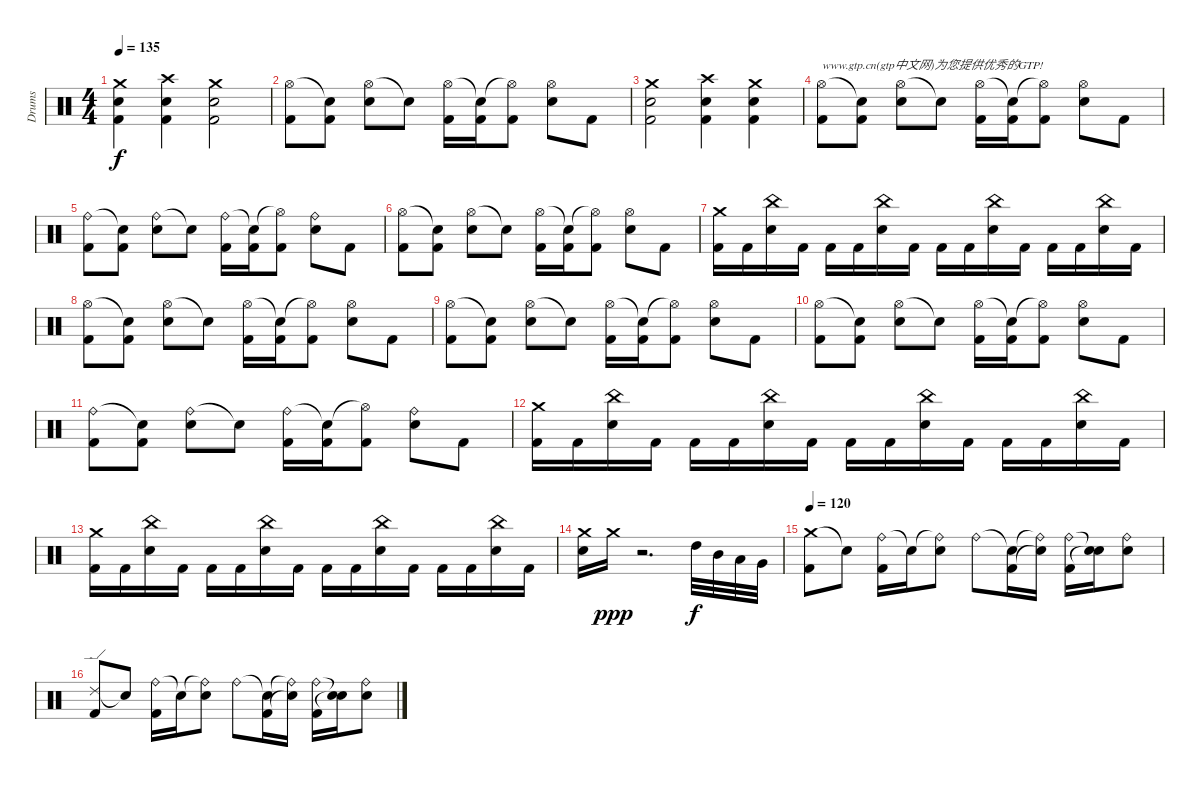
\track ("Drums" "Drums") {instrument percussion}
\staff {score}
\articulation defaults
\ts (4 4)
\tempo 135
\clef neutral
\ks c
("Crash medium (hit)" "Electric Snare (hit)" "Kick (hit) 2").4{dy f} ("Crash high (hit)" "Electric Snare (hit)" "Kick (hit) 2").4 ("Crash medium (hit)" "Electric Snare (hit)" "Kick (hit) 2").2 |
("Hi-Hat (open)" "Kick (hit) 2").8 ("Snare (hit)"{t} "Kick (hit) 2").8 ("Hi-Hat (open)" "Electric Snare (hit)").8 "Snare (hit)"{t}.8 ("Hi-Hat (open)" "Kick (hit) 2").16 ("Snare (hit)"{t} "Kick (hit) 2").16 ("Hi-Hat (open)"{t} "Kick (hit) 2").8 ("Hi-Hat (open)" "Electric Snare (hit)").8 "Kick (hit) 2".8 |
("Crash medium (hit)" "Snare (hit) 2" "Kick (hit) 2").2 ("Crash high (hit)" "Electric Snare (hit)" "Kick (hit) 2").4 ("Crash medium (hit)" "Electric Snare (hit)" "Kick (hit) 2").4 |
("Hi-Hat (open)" "Kick (hit) 2").8{txt "www.gtp.cn(gtp中文网)为您提供优秀的GTP!"} ("Snare (hit)"{t} "Kick (hit) 2").8 ("Hi-Hat (open)" "Electric Snare (hit)").8 "Snare (hit)"{t}.8 ("Hi-Hat (open)" "Kick (hit) 2").16 ("Snare (hit)"{t} "Kick (hit) 2").16 ("Hi-Hat (open)"{t} "Kick (hit) 2").8 ("Hi-Hat (open)" "Electric Snare (hit)").8 "Kick (hit) 2".8 |
("Ride (bell)" "Kick (hit) 2").8 ("Snare (hit)"{t} "Kick (hit) 2").8 ("Ride (bell)" "Electric Snare (hit)").8 "Snare (hit)"{t}.8 ("Ride (bell)" "Kick (hit) 2").16 ("Snare (hit)"{t} "Kick (hit) 2").16 ("Hi-Hat (open)"{t} "Kick (hit) 2").8 ("Ride (bell)" "Electric Snare (hit)").8 "Kick (hit) 2".8 |
("Hi-Hat (open)" "Kick (hit) 2").8 ("Snare (hit)"{t} "Kick (hit) 2").8 ("Hi-Hat (open)" "Electric Snare (hit)").8 "Snare (hit)"{t}.8 ("Hi-Hat (open)" "Kick (hit) 2").16 ("Snare (hit)"{t} "Kick (hit) 2").16 ("Hi-Hat (open)"{t} "Kick (hit) 2").8 ("Hi-Hat (open)" "Electric Snare (hit)").8 "Kick (hit) 2".8 |
("Crash medium (hit)" "Kick (hit) 2").16 "Kick (hit) 2".16 ("China (hit)" "Snare (hit) 2").16 "Kick (hit) 2".16 "Kick (hit) 2".16 "Kick (hit) 2".16 ("China (hit)" "Snare (hit) 2").16 "Kick (hit) 2".16 "Kick (hit) 2".16 "Kick (hit) 2".16 ("China (hit)" "Snare (hit) 2").16 "Kick (hit) 2".16 "Kick (hit) 2".16 "Kick (hit) 2".16 ("China (hit)" "Snare (hit) 2").16 "Kick (hit) 2".16 |
("Hi-Hat (open)" "Kick (hit) 2").8 ("Snare (hit)"{t} "Kick (hit) 2").8 ("Hi-Hat (open)" "Electric Snare (hit)").8 "Snare (hit)"{t}.8 ("Hi-Hat (open)" "Kick (hit) 2").16 ("Snare (hit)"{t} "Kick (hit) 2").16 ("Hi-Hat (open)"{t} "Kick (hit) 2").8 ("Hi-Hat (open)" "Electric Snare (hit)").8 "Kick (hit) 2".8 |
("Hi-Hat (open)" "Kick (hit) 2").8 ("Snare (hit)"{t} "Kick (hit) 2").8 ("Hi-Hat (open)" "Electric Snare (hit)").8 "Snare (hit)"{t}.8 ("Hi-Hat (open)" "Kick (hit) 2").16 ("Snare (hit)"{t} "Kick (hit) 2").16 ("Hi-Hat (open)"{t} "Kick (hit) 2").8 ("Hi-Hat (open)" "Electric Snare (hit)").8 "Kick (hit) 2".8 |
("Hi-Hat (open)" "Kick (hit) 2").8 ("Snare (hit)"{t} "Kick (hit) 2").8 ("Hi-Hat (open)" "Electric Snare (hit)").8 "Snare (hit)"{t}.8 ("Hi-Hat (open)" "Kick (hit) 2").16 ("Snare (hit)"{t} "Kick (hit) 2").16 ("Hi-Hat (open)"{t} "Kick (hit) 2").8 ("Hi-Hat (open)" "Electric Snare (hit)").8 "Kick (hit) 2".8 |
("Ride (bell)" "Kick (hit) 2").8 ("Snare (hit)"{t} "Kick (hit) 2").8 ("Ride (bell)" "Electric Snare (hit)").8 "Snare (hit)"{t}.8 ("Ride (bell)" "Kick (hit) 2").16 ("Snare (hit)"{t} "Kick (hit) 2").16 ("Hi-Hat (open)"{t} "Kick (hit) 2").8 ("Ride (bell)" "Electric Snare (hit)").8 "Kick (hit) 2".8 |
("Crash medium (hit)" "Kick (hit) 2").16 "Kick (hit) 2".16 ("China (hit)" "Snare (hit) 2").16 "Kick (hit) 2".16 "Kick (hit) 2".16 "Kick (hit) 2".16 ("China (hit)" "Snare (hit) 2").16 "Kick (hit) 2".16 "Kick (hit) 2".16 "Kick (hit) 2".16 ("China (hit)" "Snare (hit) 2").16 "Kick (hit) 2".16 "Kick (hit) 2".16 "Kick (hit) 2".16 ("China (hit)" "Snare (hit) 2").16 "Kick (hit) 2".16 |
("Crash medium (hit)" "Kick (hit) 2").16 "Kick (hit) 2".16 ("China (hit)" "Snare (hit) 2").16 "Kick (hit) 2".16 "Kick (hit) 2".16 "Kick (hit) 2".16 ("China (hit)" "Snare (hit) 2").16 "Kick (hit) 2".16 "Kick (hit) 2".16 "Kick (hit) 2".16 ("China (hit)" "Snare (hit) 2").16 "Kick (hit) 2".16 "Kick (hit) 2".16 "Kick (hit) 2".16 ("China (hit)" "Snare (hit) 2").16 "Kick (hit) 2".16 |
("Crash medium (hit)" "Electric Snare (hit)").16 "Crash medium (hit)".16{dy ppp} r.2{d} "High Tom (hit)".32{dy f} "Mid Tom (hit)".32 "Low Tom (hit)".32 "Very Low Tom (hit)".32 |
\tempo 120
("Crash medium (hit)" "Kick (hit) 2").8 "Snare (hit)"{t}.8 ("Ride (bell)" "Kick (hit) 2").16 "Snare (hit)"{t}.16 ("Ride (bell)"{t} "Snare (hit) 2").8 "Ride (bell)".8 ("Snare (hit)"{t} "Kick (hit) 2").16 ("Ride (bell)"{t} "Snare (hit)"{t}).16 ("Ride (bell)" "Kick (hit) 2").16 ("Snare (hit)"{t} "Snare (hit)"{t}).16 ("Ride (bell)" "Snare (hit) 2").8 |
("Ride (edge) 2" "Kick (hit) 2").8 "Snare (hit)"{t}.8 ("Ride (bell)" "Kick (hit) 2").16 "Snare (hit)"{t}.16 ("Ride (bell)"{t} "Snare (hit) 2").8 "Ride (bell)".8 ("Snare (hit)"{t} "Kick (hit) 2").16 ("Ride (bell)"{t} "Snare (hit)"{t}).16 ("Ride (bell)" "Kick (hit) 2").16 ("Snare (hit)"{t} "Snare (hit)"{t}).16 ("Ride (bell)" "Snare (hit) 2").8
